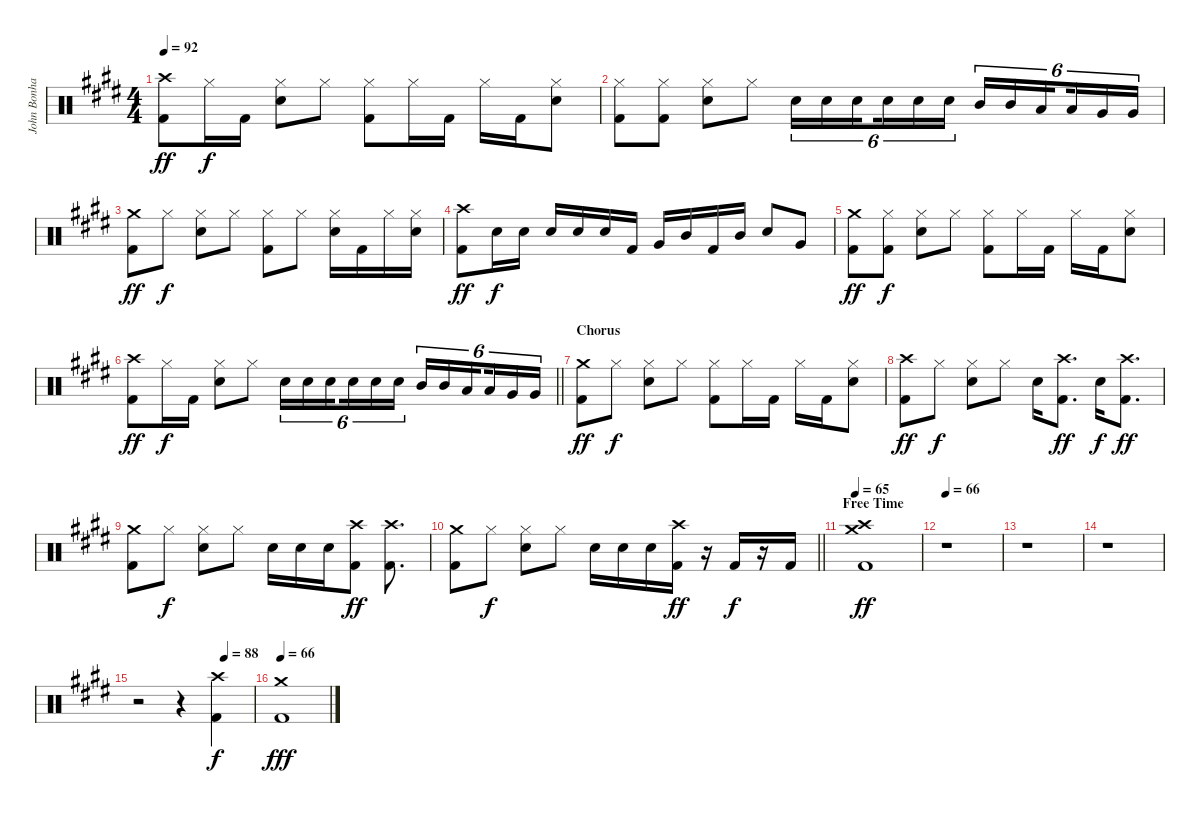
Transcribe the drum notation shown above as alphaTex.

\track ("John Bonham Drums" "John Bonha") {instrument percussion}
\staff {score}
\articulation defaults
\ts (4 4)
\tempo 92
\clef neutral
\ks e
("Crash high (hit)" "Kick (hit) 2").8{dy ff} "Hi-Hat (closed)".16{dy f} "Kick (hit) 2".16 ("Hi-Hat (closed)" "Snare (hit) 2").8 "Hi-Hat (closed)".8 ("Hi-Hat (closed)" "Kick (hit) 2").8 "Hi-Hat (closed)".16 "Kick (hit) 2".16 "Hi-Hat (closed)".16 "Kick (hit) 2".16 ("Hi-Hat (closed)" "Snare (hit) 2").8 |
("Hi-Hat (closed)" "Kick (hit) 2").8 ("Hi-Hat (closed)" "Kick (hit) 2").8 ("Hi-Hat (closed)" "Snare (hit) 2").8 "Hi-Hat (closed)".8 "Snare (hit) 2".16{tu (6 4)} "Snare (hit) 2".16{tu (6 4)} "Snare (hit) 2".16{tu (6 4) beam splitsecondary} "Snare (hit) 2".16{tu (6 4)} "Snare (hit) 2".16{tu (6 4)} "Snare (hit) 2".16{tu (6 4)} "Mid Tom (hit)".16{tu (6 4)} "Mid Tom (hit)".16{tu (6 4)} "Low Tom (hit)".16{tu (6 4) beam splitsecondary} "Low Tom (hit)".16{tu (6 4)} "Very Low Tom (hit)".16{tu (6 4)} "Very Low Tom (hit)".16{tu (6 4)} |
("Crash medium (hit)" "Kick (hit) 2").8{dy ff} "Hi-Hat (closed)".8{dy f} ("Hi-Hat (closed)" "Snare (hit) 2").8 "Hi-Hat (closed)".8 ("Hi-Hat (closed)" "Kick (hit) 2").8 "Hi-Hat (closed)".8 ("Hi-Hat (closed)" "Snare (hit) 2").16 "Kick (hit) 2".16 "Hi-Hat (closed)".16 ("Hi-Hat (closed)" "Snare (hit) 2").16 |
("Crash high (hit)" "Kick (hit) 2").8{dy ff} "Snare (hit) 2".16{dy f} "Snare (hit) 2".16 "Snare (hit) 2".16 "Snare (hit) 2".16 "Snare (hit) 2".16 "Kick (hit) 2".16 "Very Low Tom (hit)".16 "Mid Tom (hit)".16 "Kick (hit) 2".16 "Mid Tom (hit)".16 "Snare (hit) 2".8 "Very Low Tom (hit)".8 |
("Crash medium (hit)" "Kick (hit) 2").8{dy ff} ("Hi-Hat (closed)" "Kick (hit) 2").8{dy f} ("Hi-Hat (closed)" "Snare (hit) 2").8 "Hi-Hat (closed)".8 ("Hi-Hat (closed)" "Kick (hit) 2").8 "Hi-Hat (closed)".16 "Kick (hit) 2".16 "Hi-Hat (closed)".16 "Kick (hit) 2".16 ("Hi-Hat (closed)" "Snare (hit) 2").8 |
\barLineRight lightlight
("Crash high (hit)" "Kick (hit) 2").8{dy ff} "Hi-Hat (closed)".16{dy f} "Kick (hit) 2".16 ("Hi-Hat (closed)" "Snare (hit) 2").8 "Hi-Hat (closed)".8 "Snare (hit) 2".16{tu (6 4)} "Snare (hit) 2".16{tu (6 4)} "Snare (hit) 2".16{tu (6 4) beam splitsecondary} "Snare (hit) 2".16{tu (6 4)} "Snare (hit) 2".16{tu (6 4)} "Snare (hit) 2".16{tu (6 4)} "Mid Tom (hit)".16{tu (6 4)} "Mid Tom (hit)".16{tu (6 4)} "Low Tom (hit)".16{tu (6 4) beam splitsecondary} "Low Tom (hit)".16{tu (6 4)} "Very Low Tom (hit)".16{tu (6 4)} "Very Low Tom (hit)".16{tu (6 4)} |
\section ("" "Chorus")
("Crash medium (hit)" "Kick (hit) 2").8{dy ff} "Hi-Hat (closed)".8{dy f} ("Hi-Hat (closed)" "Snare (hit) 2").8 "Hi-Hat (closed)".8 ("Hi-Hat (closed)" "Kick (hit) 2").8 "Hi-Hat (closed)".16 "Kick (hit) 2".16 "Hi-Hat (closed)".16 "Kick (hit) 2".16 ("Hi-Hat (closed)" "Snare (hit) 2").8 |
("Crash high (hit)" "Kick (hit) 2").8{dy ff} "Hi-Hat (closed)".8{dy f} ("Hi-Hat (closed)" "Snare (hit) 2").8 "Hi-Hat (closed)".8 "Snare (hit) 2".16 ("Crash high (hit)" "Kick (hit) 2").8{d dy ff} "Snare (hit) 2".16{dy f} ("Crash high (hit)" "Kick (hit) 2").8{d dy ff} |
("Crash medium (hit)" "Kick (hit) 2").8 "Hi-Hat (closed)".8{dy f} ("Hi-Hat (closed)" "Snare (hit) 2").8 "Hi-Hat (closed)".8 "Snare (hit) 2".16 "Snare (hit) 2".16 "Snare (hit) 2".16 ("Crash high (hit)" "Kick (hit) 2").8{dy ff} ("Crash high (hit)" "Kick (hit) 2").8{d} |
\barLineRight lightlight
("Crash medium (hit)" "Kick (hit) 2").8 "Hi-Hat (closed)".8{dy f} ("Hi-Hat (closed)" "Snare (hit) 2").8 "Hi-Hat (closed)".8 "Snare (hit) 2".16 "Snare (hit) 2".16 "Snare (hit) 2".16 ("Crash high (hit)" "Kick (hit) 2").16{dy ff} r.16 "Kick (hit) 2".16{dy f} r.16 "Kick (hit) 2".16 |
\section ("" "Free Time")
\tempo 65
("Crash high (hit)" "Crash medium (hit)" "Kick (hit) 2").1{dy ff} |
\tempo 66
r.1 |
r.1 |
r.1 |
\tempo (88 0.75)
r.2 r.4 ("Crash high (hit)" "Kick (hit) 2").4{dy f} |
\tempo 66
("Crash medium (hit)" "Kick (hit) 2").1{dy fff}
